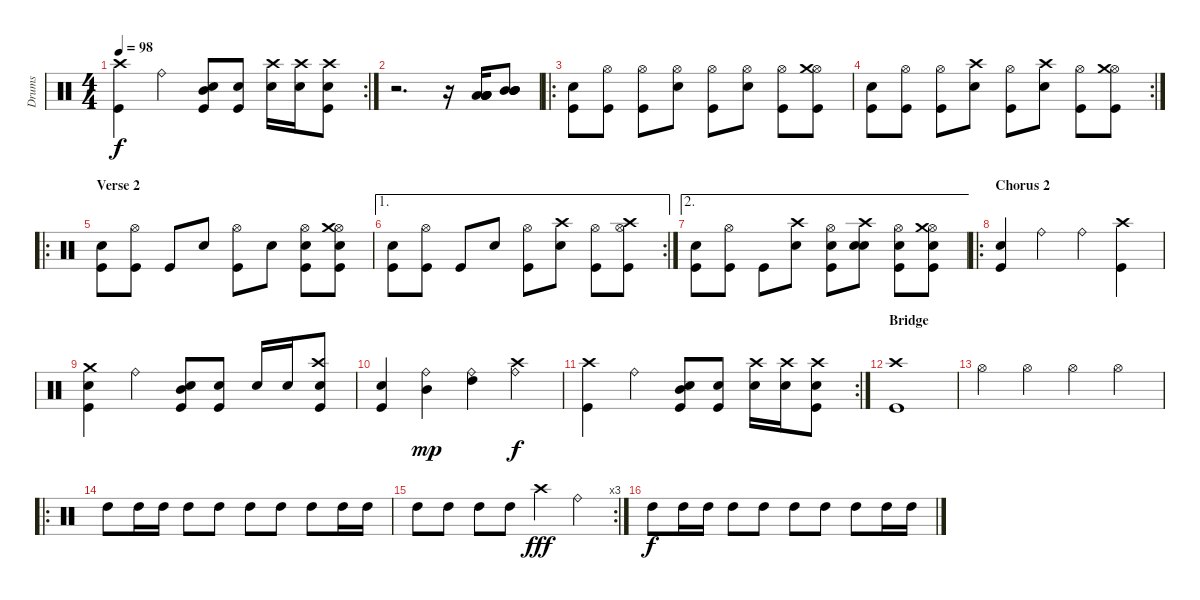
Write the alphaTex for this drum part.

\track ("Drums" "Drums") {instrument percussion}
\staff {score}
\articulation defaults
\rc 2
\ts (4 4)
\tempo 98
\clef neutral
\ks c
("Kick (hit)" "Crash high (hit)").4{dy f} "Ride (bell)".4 ("Mid Tom (hit)" "Electric Snare (hit)" "Kick (hit)").8 ("Electric Snare (hit)" "Kick (hit)").8 ("Crash high (hit)" "Electric Snare (hit)").16 ("Crash high (hit)" "Electric Snare (hit)").16 ("Electric Snare (hit)" "Kick (hit)" "Crash high (hit)").8 |
r.2{d} r.16 ("Low Tom (hit)" "Low Tom (hit)" "Low Tom (hit)" "Low Tom (hit)").16 ("Mid Tom (hit)" "Mid Tom (hit)" "Mid Tom (hit)" "Mid Tom (hit)").8 |
\ro
("Electric Snare (hit)" "Kick (hit)").8 ("Hi-Hat (open)" "Kick (hit)").8 ("Hi-Hat (open)" "Kick (hit)").8 ("Hi-Hat (open)" "Electric Snare (hit)").8 ("Hi-Hat (open)" "Kick (hit)").8 ("Hi-Hat (open)" "Electric Snare (hit)").8 ("Hi-Hat (open)" "Kick (hit)").8 ("Kick (hit)" "Hi-Hat (open)" "Crash medium (hit)").8 |
\rc 2
("Electric Snare (hit)" "Kick (hit)").8 ("Hi-Hat (open)" "Kick (hit)").8 ("Hi-Hat (open)" "Kick (hit)").8 ("Crash high (hit)" "Electric Snare (hit)").8 ("Hi-Hat (open)" "Kick (hit)").8 ("Crash high (hit)" "Electric Snare (hit)").8 ("Hi-Hat (open)" "Kick (hit)").8 ("Kick (hit)" "Hi-Hat (open)" "Crash medium (hit)").8 |
\ro
\section ("" "Verse 2")
("Electric Snare (hit)" "Kick (hit)").8 ("Hi-Hat (open)" "Kick (hit)").8 "Kick (hit)".8 "Electric Snare (hit)".8 ("Hi-Hat (open)" "Kick (hit)").8 "Electric Snare (hit)".8 ("Electric Snare (hit)" "Hi-Hat (open)" "Kick (hit)").8 ("Electric Snare (hit)" "Kick (hit)" "Hi-Hat (open)" "Crash medium (hit)").8 |
\ae 1
\rc 2
("Electric Snare (hit)" "Kick (hit)").8 ("Hi-Hat (open)" "Kick (hit)").8 "Kick (hit)".8 "Electric Snare (hit)".8 ("Hi-Hat (open)" "Kick (hit)").8 ("Crash high (hit)" "Electric Snare (hit)").8 ("Hi-Hat (open)" "Kick (hit)").8 ("Kick (hit)" "Hi-Hat (open)" "Crash high (hit)").8 |
\ae 2
("Electric Snare (hit)" "Kick (hit)").8 ("Hi-Hat (open)" "Kick (hit)").8 "Kick (hit)".8 ("Crash high (hit)" "Electric Snare (hit)").8 ("Electric Snare (hit)" "Hi-Hat (open)" "Kick (hit)").8 ("Electric Snare (hit)" "Crash high (hit)" "Electric Snare (hit)").8 ("Electric Snare (hit)" "Hi-Hat (open)" "Kick (hit)").8 ("Electric Snare (hit)" "Kick (hit)" "Hi-Hat (open)" "Crash medium (hit)").8 |
\ro
\section ("" "Chorus 2")
("Electric Snare (hit)" "Kick (hit)").4 "Ride (bell)".4 "Ride (bell)".4 ("Kick (hit)" "Crash high (hit)").4 |
("Electric Snare (hit)" "Kick (hit)" "Crash medium (hit)").4 "Ride (bell)".4 ("Mid Tom (hit)" "Electric Snare (hit)" "Kick (hit)").8 ("Electric Snare (hit)" "Kick (hit)").8 "Electric Snare (hit)".16 "Electric Snare (hit)".16 ("Electric Snare (hit)" "Kick (hit)" "Crash high (hit)").8 |
("Kick (hit)" "Electric Snare (hit)").4 ("Mid Tom (hit)" "Ride (bell)").4{dy mp} ("High Tom (hit)" "Ride (bell)").4 ("Ride (bell)" "Crash high (hit)").4{dy f} |
\rc 2
("Kick (hit)" "Crash high (hit)").4 "Ride (bell)".4 ("Mid Tom (hit)" "Electric Snare (hit)" "Kick (hit)").8 ("Electric Snare (hit)" "Kick (hit)").8 ("Crash high (hit)" "Electric Snare (hit)").16 ("Crash high (hit)" "Electric Snare (hit)").16 ("Electric Snare (hit)" "Kick (hit)" "Crash high (hit)").8 |
\section ("" "Bridge")
("Kick (hit)" "Crash high (hit)").1 |
"Hi-Hat (open)".4 "Hi-Hat (open)".4 "Hi-Hat (open)".4 "Hi-Hat (open)".4 |
\ro "High Tom (hit)".8 "High Tom (hit)".16 "High Tom (hit)".16 "High Tom (hit)".8 "High Tom (hit)".8 "High Tom (hit)".8 "High Tom (hit)".8 "High Tom (hit)".8 "High Tom (hit)".16 "High Tom (hit)".16
|
\rc 3 "High Tom (hit)".8 "High Tom (hit)".8 "High Tom (hit)".8 "High Tom (hit)".8 "Crash high (hit)".4{dy fff} "Ride (bell)".4
|
"High Tom (hit)".8{dy f} "High Tom (hit)".16 "High Tom (hit)".16 "High Tom (hit)".8 "High Tom (hit)".8 "High Tom (hit)".8 "High Tom (hit)".8 "High Tom (hit)".8 "High Tom (hit)".16 "High Tom (hit)".16
